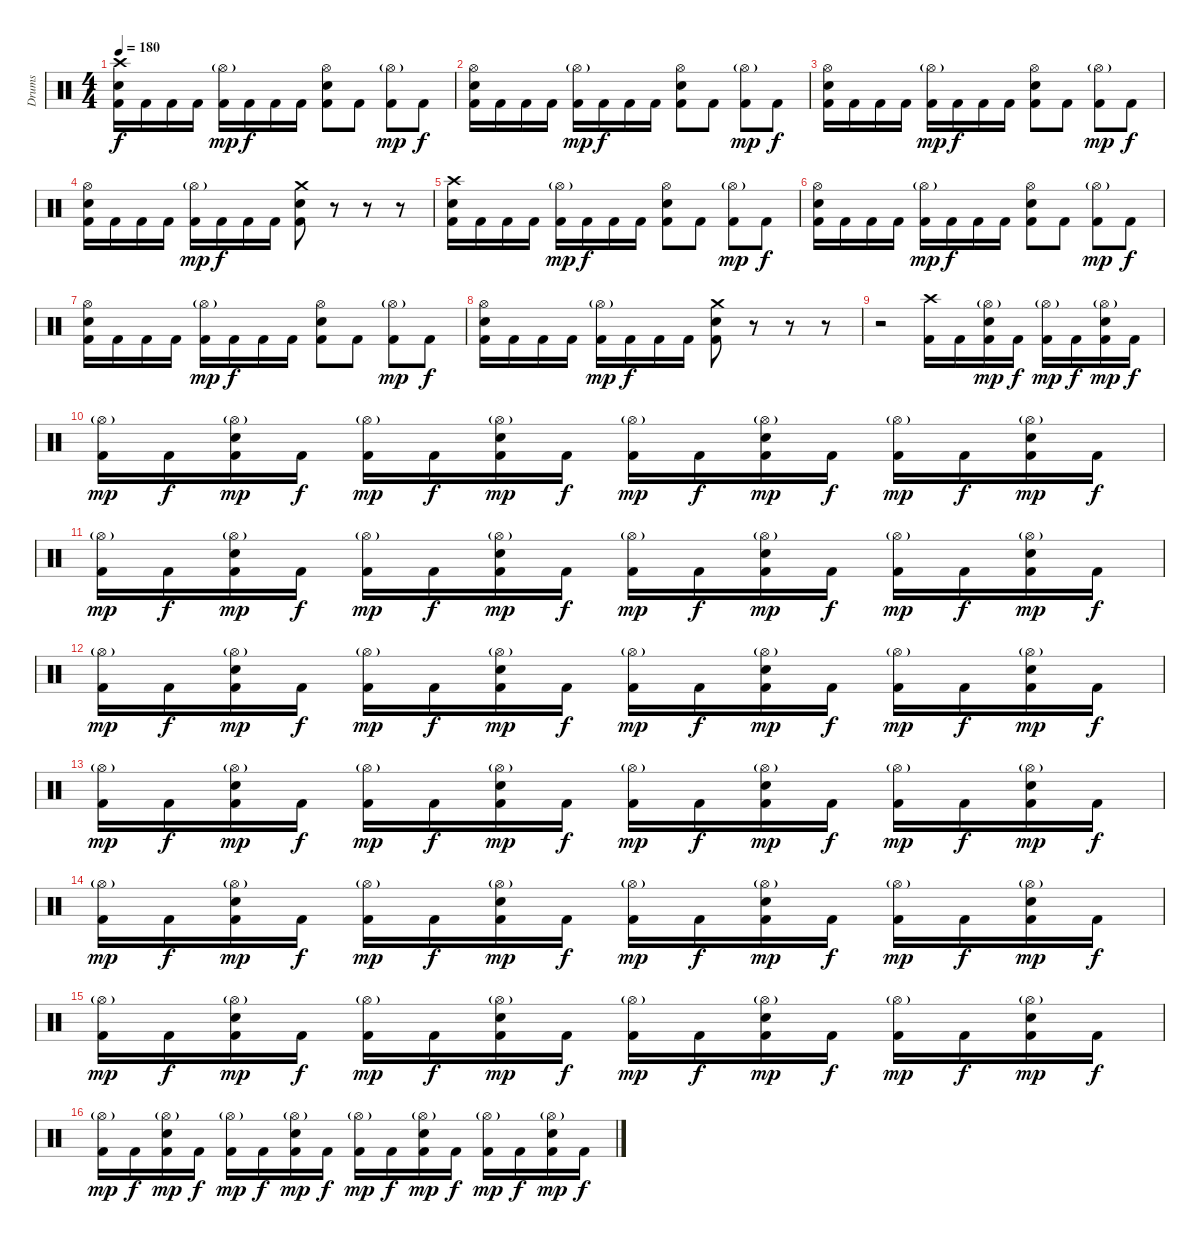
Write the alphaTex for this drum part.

\track ("Drums" "Drums") {instrument percussion}
\staff {score}
\articulation defaults
\ts (4 4)
\tempo 180
\clef neutral
\ks c
("Crash high (hit)" "Electric Snare (hit)" "Kick (hit) 2").16{dy f} "Kick (hit) 2".16 "Kick (hit) 2".16 "Kick (hit) 2".16 ("Hi-Hat (open)"{g} "Kick (hit) 2").16{dy mp} "Kick (hit) 2".16{dy f} "Kick (hit) 2".16 "Kick (hit) 2".16 ("Hi-Hat (open)" "Electric Snare (hit)" "Kick (hit) 2").8 "Kick (hit) 2".8 ("Hi-Hat (open)"{g} "Kick (hit) 2").8{dy mp} "Kick (hit) 2".8{dy f} |
("Hi-Hat (open)" "Electric Snare (hit)" "Kick (hit) 2").16 "Kick (hit) 2".16 "Kick (hit) 2".16 "Kick (hit) 2".16 ("Hi-Hat (open)"{g} "Kick (hit) 2").16{dy mp} "Kick (hit) 2".16{dy f} "Kick (hit) 2".16 "Kick (hit) 2".16 ("Hi-Hat (open)" "Electric Snare (hit)" "Kick (hit) 2").8 "Kick (hit) 2".8 ("Hi-Hat (open)"{g} "Kick (hit) 2").8{dy mp} "Kick (hit) 2".8{dy f} |
("Hi-Hat (open)" "Electric Snare (hit)" "Kick (hit) 2").16 "Kick (hit) 2".16 "Kick (hit) 2".16 "Kick (hit) 2".16 ("Hi-Hat (open)"{g} "Kick (hit) 2").16{dy mp} "Kick (hit) 2".16{dy f} "Kick (hit) 2".16 "Kick (hit) 2".16 ("Hi-Hat (open)" "Electric Snare (hit)" "Kick (hit) 2").8 "Kick (hit) 2".8 ("Hi-Hat (open)"{g} "Kick (hit) 2").8{dy mp} "Kick (hit) 2".8{dy f} |
("Hi-Hat (open)" "Electric Snare (hit)" "Kick (hit) 2").16 "Kick (hit) 2".16 "Kick (hit) 2".16 "Kick (hit) 2".16 ("Hi-Hat (open)"{g} "Kick (hit) 2").16{dy mp} "Kick (hit) 2".16{dy f} "Kick (hit) 2".16 "Kick (hit) 2".16 ("Crash medium (hit)" "Electric Snare (hit)" "Kick (hit) 2").8 r.8 r.8 r.8 |
("Crash high (hit)" "Electric Snare (hit)" "Kick (hit) 2").16 "Kick (hit) 2".16 "Kick (hit) 2".16 "Kick (hit) 2".16 ("Hi-Hat (open)"{g} "Kick (hit) 2").16{dy mp} "Kick (hit) 2".16{dy f} "Kick (hit) 2".16 "Kick (hit) 2".16 ("Hi-Hat (open)" "Electric Snare (hit)" "Kick (hit) 2").8 "Kick (hit) 2".8 ("Hi-Hat (open)"{g} "Kick (hit) 2").8{dy mp} "Kick (hit) 2".8{dy f} |
("Hi-Hat (open)" "Electric Snare (hit)" "Kick (hit) 2").16 "Kick (hit) 2".16 "Kick (hit) 2".16 "Kick (hit) 2".16 ("Hi-Hat (open)"{g} "Kick (hit) 2").16{dy mp} "Kick (hit) 2".16{dy f} "Kick (hit) 2".16 "Kick (hit) 2".16 ("Hi-Hat (open)" "Electric Snare (hit)" "Kick (hit) 2").8 "Kick (hit) 2".8 ("Hi-Hat (open)"{g} "Kick (hit) 2").8{dy mp} "Kick (hit) 2".8{dy f} |
("Hi-Hat (open)" "Electric Snare (hit)" "Kick (hit) 2").16 "Kick (hit) 2".16 "Kick (hit) 2".16 "Kick (hit) 2".16 ("Hi-Hat (open)"{g} "Kick (hit) 2").16{dy mp} "Kick (hit) 2".16{dy f} "Kick (hit) 2".16 "Kick (hit) 2".16 ("Hi-Hat (open)" "Electric Snare (hit)" "Kick (hit) 2").8 "Kick (hit) 2".8 ("Hi-Hat (open)"{g} "Kick (hit) 2").8{dy mp} "Kick (hit) 2".8{dy f} |
("Hi-Hat (open)" "Electric Snare (hit)" "Kick (hit) 2").16 "Kick (hit) 2".16 "Kick (hit) 2".16 "Kick (hit) 2".16 ("Hi-Hat (open)"{g} "Kick (hit) 2").16{dy mp} "Kick (hit) 2".16{dy f} "Kick (hit) 2".16 "Kick (hit) 2".16 ("Crash medium (hit)" "Electric Snare (hit)" "Kick (hit) 2").8 r.8 r.8 r.8 |
r.2 ("Crash high (hit)" "Kick (hit) 2").16 "Kick (hit) 2".16 ("Hi-Hat (open)"{g} "Electric Snare (hit)" "Kick (hit) 2").16{dy mp} "Kick (hit) 2".16{dy f} ("Hi-Hat (open)"{g} "Kick (hit) 2").16{dy mp} "Kick (hit) 2".16{dy f} ("Hi-Hat (open)"{g} "Electric Snare (hit)" "Kick (hit) 2").16{dy mp} "Kick (hit) 2".16{dy f} |
("Hi-Hat (open)"{g} "Kick (hit) 2").16{dy mp} "Kick (hit) 2".16{dy f} ("Hi-Hat (open)"{g} "Electric Snare (hit)" "Kick (hit) 2").16{dy mp} "Kick (hit) 2".16{dy f} ("Hi-Hat (open)"{g} "Kick (hit) 2").16{dy mp} "Kick (hit) 2".16{dy f} ("Hi-Hat (open)"{g} "Electric Snare (hit)" "Kick (hit) 2").16{dy mp} "Kick (hit) 2".16{dy f} ("Hi-Hat (open)"{g} "Kick (hit) 2").16{dy mp} "Kick (hit) 2".16{dy f} ("Hi-Hat (open)"{g} "Electric Snare (hit)" "Kick (hit) 2").16{dy mp} "Kick (hit) 2".16{dy f} ("Hi-Hat (open)"{g} "Kick (hit) 2").16{dy mp} "Kick (hit) 2".16{dy f} ("Hi-Hat (open)"{g} "Electric Snare (hit)" "Kick (hit) 2").16{dy mp} "Kick (hit) 2".16{dy f} |
("Hi-Hat (open)"{g} "Kick (hit) 2").16{dy mp} "Kick (hit) 2".16{dy f} ("Hi-Hat (open)"{g} "Electric Snare (hit)" "Kick (hit) 2").16{dy mp} "Kick (hit) 2".16{dy f} ("Hi-Hat (open)"{g} "Kick (hit) 2").16{dy mp} "Kick (hit) 2".16{dy f} ("Hi-Hat (open)"{g} "Electric Snare (hit)" "Kick (hit) 2").16{dy mp} "Kick (hit) 2".16{dy f} ("Hi-Hat (open)"{g} "Kick (hit) 2").16{dy mp} "Kick (hit) 2".16{dy f} ("Hi-Hat (open)"{g} "Electric Snare (hit)" "Kick (hit) 2").16{dy mp} "Kick (hit) 2".16{dy f} ("Hi-Hat (open)"{g} "Kick (hit) 2").16{dy mp} "Kick (hit) 2".16{dy f} ("Hi-Hat (open)"{g} "Electric Snare (hit)" "Kick (hit) 2").16{dy mp} "Kick (hit) 2".16{dy f} |
("Hi-Hat (open)"{g} "Kick (hit) 2").16{dy mp} "Kick (hit) 2".16{dy f} ("Hi-Hat (open)"{g} "Electric Snare (hit)" "Kick (hit) 2").16{dy mp} "Kick (hit) 2".16{dy f} ("Hi-Hat (open)"{g} "Kick (hit) 2").16{dy mp} "Kick (hit) 2".16{dy f} ("Hi-Hat (open)"{g} "Electric Snare (hit)" "Kick (hit) 2").16{dy mp} "Kick (hit) 2".16{dy f} ("Hi-Hat (open)"{g} "Kick (hit) 2").16{dy mp} "Kick (hit) 2".16{dy f} ("Hi-Hat (open)"{g} "Electric Snare (hit)" "Kick (hit) 2").16{dy mp} "Kick (hit) 2".16{dy f} ("Hi-Hat (open)"{g} "Kick (hit) 2").16{dy mp} "Kick (hit) 2".16{dy f} ("Hi-Hat (open)"{g} "Electric Snare (hit)" "Kick (hit) 2").16{dy mp} "Kick (hit) 2".16{dy f} |
("Hi-Hat (open)"{g} "Kick (hit) 2").16{dy mp} "Kick (hit) 2".16{dy f} ("Hi-Hat (open)"{g} "Electric Snare (hit)" "Kick (hit) 2").16{dy mp} "Kick (hit) 2".16{dy f} ("Hi-Hat (open)"{g} "Kick (hit) 2").16{dy mp} "Kick (hit) 2".16{dy f} ("Hi-Hat (open)"{g} "Electric Snare (hit)" "Kick (hit) 2").16{dy mp} "Kick (hit) 2".16{dy f} ("Hi-Hat (open)"{g} "Kick (hit) 2").16{dy mp} "Kick (hit) 2".16{dy f} ("Hi-Hat (open)"{g} "Electric Snare (hit)" "Kick (hit) 2").16{dy mp} "Kick (hit) 2".16{dy f} ("Hi-Hat (open)"{g} "Kick (hit) 2").16{dy mp} "Kick (hit) 2".16{dy f} ("Hi-Hat (open)"{g} "Electric Snare (hit)" "Kick (hit) 2").16{dy mp} "Kick (hit) 2".16{dy f} |
("Hi-Hat (open)"{g} "Kick (hit) 2").16{dy mp} "Kick (hit) 2".16{dy f} ("Hi-Hat (open)"{g} "Electric Snare (hit)" "Kick (hit) 2").16{dy mp} "Kick (hit) 2".16{dy f} ("Hi-Hat (open)"{g} "Kick (hit) 2").16{dy mp} "Kick (hit) 2".16{dy f} ("Hi-Hat (open)"{g} "Electric Snare (hit)" "Kick (hit) 2").16{dy mp} "Kick (hit) 2".16{dy f} ("Hi-Hat (open)"{g} "Kick (hit) 2").16{dy mp} "Kick (hit) 2".16{dy f} ("Hi-Hat (open)"{g} "Electric Snare (hit)" "Kick (hit) 2").16{dy mp} "Kick (hit) 2".16{dy f} ("Hi-Hat (open)"{g} "Kick (hit) 2").16{dy mp} "Kick (hit) 2".16{dy f} ("Hi-Hat (open)"{g} "Electric Snare (hit)" "Kick (hit) 2").16{dy mp} "Kick (hit) 2".16{dy f} |
("Hi-Hat (open)"{g} "Kick (hit) 2").16{dy mp} "Kick (hit) 2".16{dy f} ("Hi-Hat (open)"{g} "Electric Snare (hit)" "Kick (hit) 2").16{dy mp} "Kick (hit) 2".16{dy f} ("Hi-Hat (open)"{g} "Kick (hit) 2").16{dy mp} "Kick (hit) 2".16{dy f} ("Hi-Hat (open)"{g} "Electric Snare (hit)" "Kick (hit) 2").16{dy mp} "Kick (hit) 2".16{dy f} ("Hi-Hat (open)"{g} "Kick (hit) 2").16{dy mp} "Kick (hit) 2".16{dy f} ("Hi-Hat (open)"{g} "Electric Snare (hit)" "Kick (hit) 2").16{dy mp} "Kick (hit) 2".16{dy f} ("Hi-Hat (open)"{g} "Kick (hit) 2").16{dy mp} "Kick (hit) 2".16{dy f} ("Hi-Hat (open)"{g} "Electric Snare (hit)" "Kick (hit) 2").16{dy mp} "Kick (hit) 2".16{dy f} |
("Hi-Hat (open)"{g} "Kick (hit) 2").16{dy mp} "Kick (hit) 2".16{dy f} ("Hi-Hat (open)"{g} "Electric Snare (hit)" "Kick (hit) 2").16{dy mp} "Kick (hit) 2".16{dy f} ("Hi-Hat (open)"{g} "Kick (hit) 2").16{dy mp} "Kick (hit) 2".16{dy f} ("Hi-Hat (open)"{g} "Electric Snare (hit)" "Kick (hit) 2").16{dy mp} "Kick (hit) 2".16{dy f} ("Hi-Hat (open)"{g} "Kick (hit) 2").16{dy mp} "Kick (hit) 2".16{dy f} ("Hi-Hat (open)"{g} "Electric Snare (hit)" "Kick (hit) 2").16{dy mp} "Kick (hit) 2".16{dy f} ("Hi-Hat (open)"{g} "Kick (hit) 2").16{dy mp} "Kick (hit) 2".16{dy f} ("Hi-Hat (open)"{g} "Electric Snare (hit)" "Kick (hit) 2").16{dy mp} "Kick (hit) 2".16{dy f}
